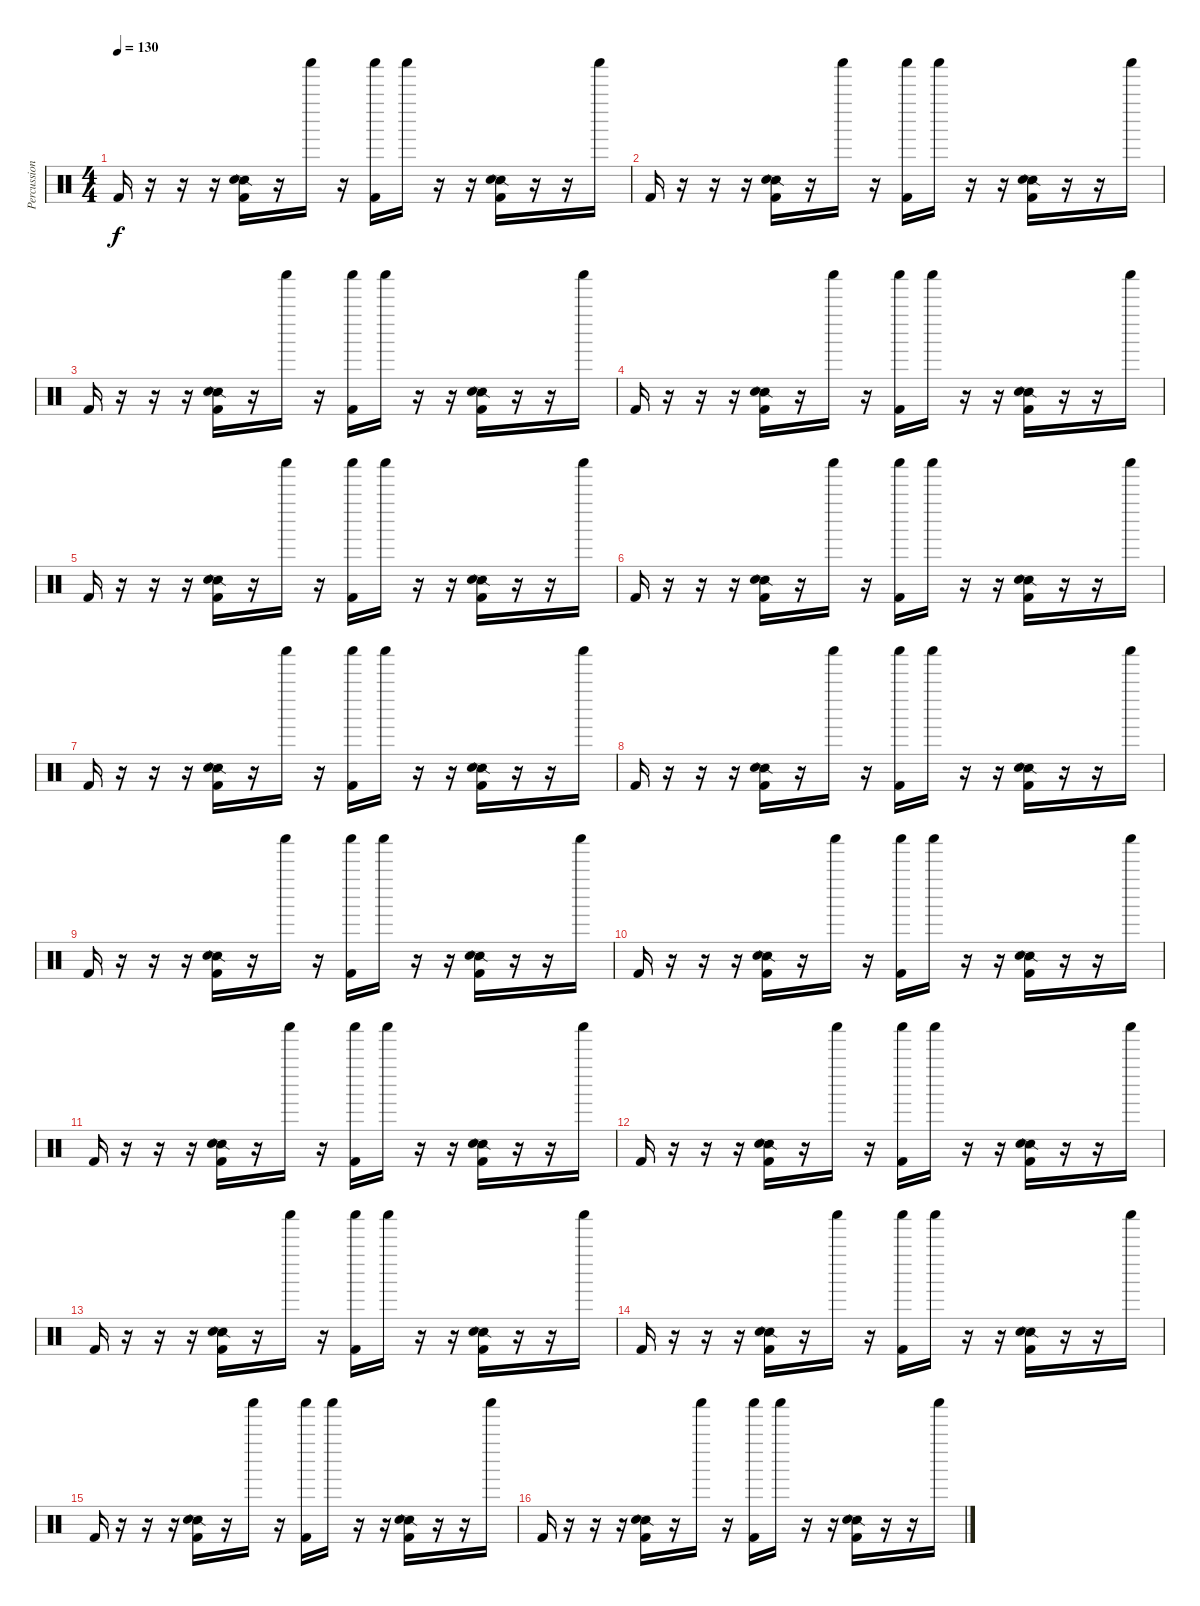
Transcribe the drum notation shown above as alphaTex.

\track ("Percussion" "Percussion") {instrument percussion}
\staff {score}
\articulation defaults
\ts (4 4)
\tempo 130
\clef neutral
\ks c "Kick (hit) 2".16{dy f}
r.16 r.16 r.16 ("Kick (hit) 2" "Snare (side stick) 2" "Electric Snare (hit)").16 r.16 "Shaker (hit)".16 r.16 ("Kick (hit) 2" "Shaker (hit)").16 "Shaker (hit)".16 r.16 r.16 ("Kick (hit) 2" "Snare (side stick) 2" "Electric Snare (hit)").16 r.16 r.16 "Shaker (hit)".16 |
"Kick (hit) 2".16 r.16 r.16 r.16 ("Kick (hit) 2" "Snare (side stick) 2" "Electric Snare (hit)").16 r.16 "Shaker (hit)".16 r.16 ("Kick (hit) 2" "Shaker (hit)").16 "Shaker (hit)".16 r.16 r.16 ("Kick (hit) 2" "Snare (side stick) 2" "Electric Snare (hit)").16 r.16 r.16 "Shaker (hit)".16 |
"Kick (hit) 2".16 r.16 r.16 r.16 ("Kick (hit) 2" "Snare (side stick) 2" "Electric Snare (hit)").16 r.16 "Shaker (hit)".16 r.16 ("Kick (hit) 2" "Shaker (hit)").16 "Shaker (hit)".16 r.16 r.16 ("Kick (hit) 2" "Snare (side stick) 2" "Electric Snare (hit)").16 r.16 r.16 "Shaker (hit)".16 |
"Kick (hit) 2".16 r.16 r.16 r.16 ("Kick (hit) 2" "Snare (side stick) 2" "Electric Snare (hit)").16 r.16 "Shaker (hit)".16 r.16 ("Kick (hit) 2" "Shaker (hit)").16 "Shaker (hit)".16 r.16 r.16 ("Kick (hit) 2" "Snare (side stick) 2" "Electric Snare (hit)").16 r.16 r.16 "Shaker (hit)".16 |
"Kick (hit) 2".16 r.16 r.16 r.16 ("Kick (hit) 2" "Snare (side stick) 2" "Electric Snare (hit)").16 r.16 "Shaker (hit)".16 r.16 ("Kick (hit) 2" "Shaker (hit)").16 "Shaker (hit)".16 r.16 r.16 ("Kick (hit) 2" "Snare (side stick) 2" "Electric Snare (hit)").16 r.16 r.16 "Shaker (hit)".16 |
"Kick (hit) 2".16 r.16 r.16 r.16 ("Kick (hit) 2" "Snare (side stick) 2" "Electric Snare (hit)").16 r.16 "Shaker (hit)".16 r.16 ("Kick (hit) 2" "Shaker (hit)").16 "Shaker (hit)".16 r.16 r.16 ("Kick (hit) 2" "Snare (side stick) 2" "Electric Snare (hit)").16 r.16 r.16 "Shaker (hit)".16 |
"Kick (hit) 2".16 r.16 r.16 r.16 ("Kick (hit) 2" "Snare (side stick) 2" "Electric Snare (hit)").16 r.16 "Shaker (hit)".16 r.16 ("Kick (hit) 2" "Shaker (hit)").16 "Shaker (hit)".16 r.16 r.16 ("Kick (hit) 2" "Snare (side stick) 2" "Electric Snare (hit)").16 r.16 r.16 "Shaker (hit)".16 |
"Kick (hit) 2".16 r.16 r.16 r.16 ("Kick (hit) 2" "Snare (side stick) 2" "Electric Snare (hit)").16 r.16 "Shaker (hit)".16 r.16 ("Kick (hit) 2" "Shaker (hit)").16 "Shaker (hit)".16 r.16 r.16 ("Kick (hit) 2" "Snare (side stick) 2" "Electric Snare (hit)").16 r.16 r.16 "Shaker (hit)".16 |
"Kick (hit) 2".16 r.16 r.16 r.16 ("Kick (hit) 2" "Snare (side stick) 2" "Electric Snare (hit)").16 r.16 "Shaker (hit)".16 r.16 ("Kick (hit) 2" "Shaker (hit)").16 "Shaker (hit)".16 r.16 r.16 ("Kick (hit) 2" "Snare (side stick) 2" "Electric Snare (hit)").16 r.16 r.16 "Shaker (hit)".16 |
"Kick (hit) 2".16 r.16 r.16 r.16 ("Kick (hit) 2" "Snare (side stick) 2" "Electric Snare (hit)").16 r.16 "Shaker (hit)".16 r.16 ("Kick (hit) 2" "Shaker (hit)").16 "Shaker (hit)".16 r.16 r.16 ("Kick (hit) 2" "Snare (side stick) 2" "Electric Snare (hit)").16 r.16 r.16 "Shaker (hit)".16 |
"Kick (hit) 2".16 r.16 r.16 r.16 ("Kick (hit) 2" "Snare (side stick) 2" "Electric Snare (hit)").16 r.16 "Shaker (hit)".16 r.16 ("Kick (hit) 2" "Shaker (hit)").16 "Shaker (hit)".16 r.16 r.16 ("Kick (hit) 2" "Snare (side stick) 2" "Electric Snare (hit)").16 r.16 r.16 "Shaker (hit)".16 |
"Kick (hit) 2".16 r.16 r.16 r.16 ("Kick (hit) 2" "Snare (side stick) 2" "Electric Snare (hit)").16 r.16 "Shaker (hit)".16 r.16 ("Kick (hit) 2" "Shaker (hit)").16 "Shaker (hit)".16 r.16 r.16 ("Kick (hit) 2" "Snare (side stick) 2" "Electric Snare (hit)").16 r.16 r.16 "Shaker (hit)".16 |
"Kick (hit) 2".16 r.16 r.16 r.16 ("Kick (hit) 2" "Snare (side stick) 2" "Electric Snare (hit)").16 r.16 "Shaker (hit)".16 r.16 ("Kick (hit) 2" "Shaker (hit)").16 "Shaker (hit)".16 r.16 r.16 ("Kick (hit) 2" "Snare (side stick) 2" "Electric Snare (hit)").16 r.16 r.16 "Shaker (hit)".16 |
"Kick (hit) 2".16 r.16 r.16 r.16 ("Kick (hit) 2" "Snare (side stick) 2" "Electric Snare (hit)").16 r.16 "Shaker (hit)".16 r.16 ("Kick (hit) 2" "Shaker (hit)").16 "Shaker (hit)".16 r.16 r.16 ("Kick (hit) 2" "Snare (side stick) 2" "Electric Snare (hit)").16 r.16 r.16 "Shaker (hit)".16 |
"Kick (hit) 2".16 r.16 r.16 r.16 ("Kick (hit) 2" "Snare (side stick) 2" "Electric Snare (hit)").16 r.16 "Shaker (hit)".16 r.16 ("Kick (hit) 2" "Shaker (hit)").16 "Shaker (hit)".16 r.16 r.16 ("Kick (hit) 2" "Snare (side stick) 2" "Electric Snare (hit)").16 r.16 r.16 "Shaker (hit)".16 |
"Kick (hit) 2".16 r.16 r.16 r.16 ("Kick (hit) 2" "Snare (side stick) 2" "Electric Snare (hit)").16 r.16 "Shaker (hit)".16 r.16 ("Kick (hit) 2" "Shaker (hit)").16 "Shaker (hit)".16 r.16 r.16 ("Kick (hit) 2" "Snare (side stick) 2" "Electric Snare (hit)").16 r.16 r.16 "Shaker (hit)".16
